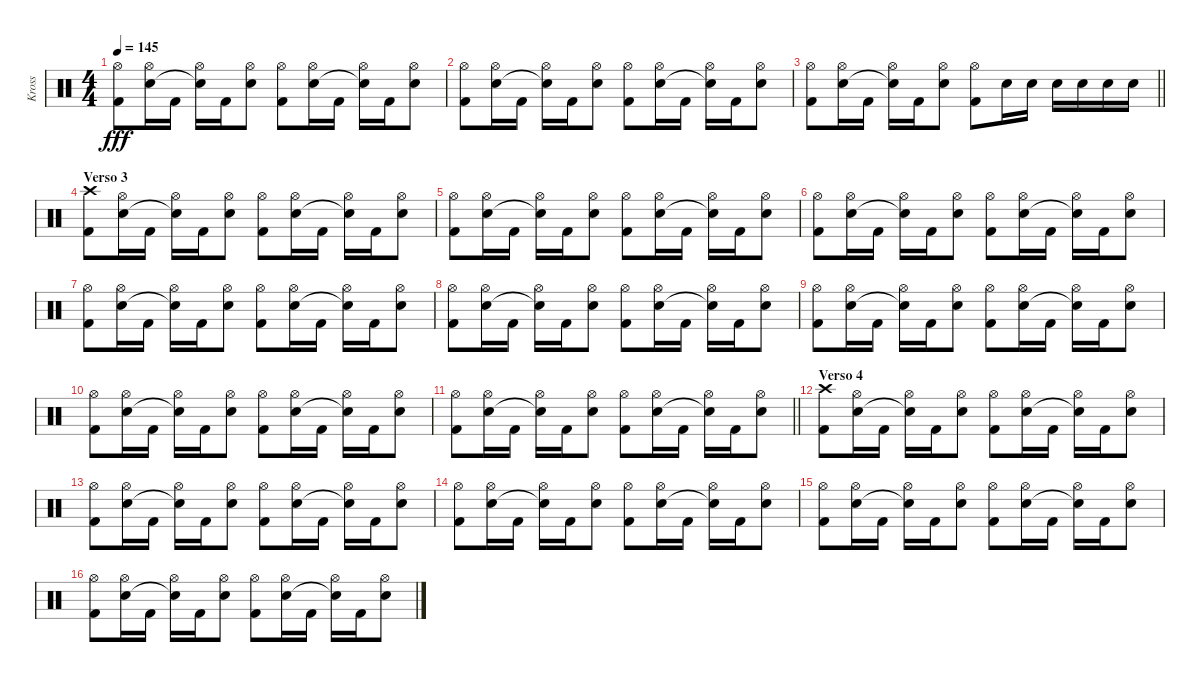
\track ("Kross" "Kross") {instrument percussion}
\staff {score}
\articulation defaults
\ts (4 4)
\tempo 145
\clef neutral
\ks c
("Hi-Hat (open)" "Kick (hit) 2").8{dy fff} ("Hi-Hat (open)" "Electric Snare (hit)").16 "Kick (hit) 2".16 ("Hi-Hat (open)" "Snare (hit)"{t}).16 "Kick (hit) 2".16 ("Hi-Hat (open)" "Electric Snare (hit)").8 ("Hi-Hat (open)" "Kick (hit) 2").8 ("Hi-Hat (open)" "Electric Snare (hit)").16 "Kick (hit) 2".16 ("Hi-Hat (open)" "Snare (hit)"{t}).16 "Kick (hit) 2".16 ("Hi-Hat (open)" "Electric Snare (hit)").8 |
("Hi-Hat (open)" "Kick (hit) 2").8 ("Hi-Hat (open)" "Electric Snare (hit)").16 "Kick (hit) 2".16 ("Hi-Hat (open)" "Snare (hit)"{t}).16 "Kick (hit) 2".16 ("Hi-Hat (open)" "Electric Snare (hit)").8 ("Hi-Hat (open)" "Kick (hit) 2").8 ("Hi-Hat (open)" "Electric Snare (hit)").16 "Kick (hit) 2".16 ("Hi-Hat (open)" "Snare (hit)"{t}).16 "Kick (hit) 2".16 ("Hi-Hat (open)" "Electric Snare (hit)").8 |
\barLineRight lightlight
("Hi-Hat (open)" "Kick (hit) 2").8 ("Hi-Hat (open)" "Electric Snare (hit)").16 "Kick (hit) 2".16 ("Hi-Hat (open)" "Snare (hit)"{t}).16 "Kick (hit) 2".16 ("Hi-Hat (open)" "Electric Snare (hit)").8 ("Hi-Hat (open)" "Kick (hit) 2").8 "Electric Snare (hit)".16 "Electric Snare (hit)".16 "Electric Snare (hit)".16 "Electric Snare (hit)".16 "Electric Snare (hit)".16 "Electric Snare (hit)".16 |
\section ("" "Verso 3")
("Crash high (hit)" "Kick (hit) 2").8 ("Hi-Hat (open)" "Electric Snare (hit)").16 "Kick (hit) 2".16 ("Hi-Hat (open)" "Snare (hit)"{t}).16 "Kick (hit) 2".16 ("Hi-Hat (open)" "Electric Snare (hit)").8 ("Hi-Hat (open)" "Kick (hit) 2").8 ("Hi-Hat (open)" "Electric Snare (hit)").16 "Kick (hit) 2".16 ("Hi-Hat (open)" "Snare (hit)"{t}).16 "Kick (hit) 2".16 ("Hi-Hat (open)" "Electric Snare (hit)").8 |
("Hi-Hat (open)" "Kick (hit) 2").8 ("Hi-Hat (open)" "Electric Snare (hit)").16 "Kick (hit) 2".16 ("Hi-Hat (open)" "Snare (hit)"{t}).16 "Kick (hit) 2".16 ("Hi-Hat (open)" "Electric Snare (hit)").8 ("Hi-Hat (open)" "Kick (hit) 2").8 ("Hi-Hat (open)" "Electric Snare (hit)").16 "Kick (hit) 2".16 ("Hi-Hat (open)" "Snare (hit)"{t}).16 "Kick (hit) 2".16 ("Hi-Hat (open)" "Electric Snare (hit)").8 |
("Hi-Hat (open)" "Kick (hit) 2").8 ("Hi-Hat (open)" "Electric Snare (hit)").16 "Kick (hit) 2".16 ("Hi-Hat (open)" "Snare (hit)"{t}).16 "Kick (hit) 2".16 ("Hi-Hat (open)" "Electric Snare (hit)").8 ("Hi-Hat (open)" "Kick (hit) 2").8 ("Hi-Hat (open)" "Electric Snare (hit)").16 "Kick (hit) 2".16 ("Hi-Hat (open)" "Snare (hit)"{t}).16 "Kick (hit) 2".16 ("Hi-Hat (open)" "Electric Snare (hit)").8 |
("Hi-Hat (open)" "Kick (hit) 2").8 ("Hi-Hat (open)" "Electric Snare (hit)").16 "Kick (hit) 2".16 ("Hi-Hat (open)" "Snare (hit)"{t}).16 "Kick (hit) 2".16 ("Hi-Hat (open)" "Electric Snare (hit)").8 ("Hi-Hat (open)" "Kick (hit) 2").8 ("Hi-Hat (open)" "Electric Snare (hit)").16 "Kick (hit) 2".16 ("Hi-Hat (open)" "Snare (hit)"{t}).16 "Kick (hit) 2".16 ("Hi-Hat (open)" "Electric Snare (hit)").8 |
("Hi-Hat (open)" "Kick (hit) 2").8 ("Hi-Hat (open)" "Electric Snare (hit)").16 "Kick (hit) 2".16 ("Hi-Hat (open)" "Snare (hit)"{t}).16 "Kick (hit) 2".16 ("Hi-Hat (open)" "Electric Snare (hit)").8 ("Hi-Hat (open)" "Kick (hit) 2").8 ("Hi-Hat (open)" "Electric Snare (hit)").16 "Kick (hit) 2".16 ("Hi-Hat (open)" "Snare (hit)"{t}).16 "Kick (hit) 2".16 ("Hi-Hat (open)" "Electric Snare (hit)").8 |
("Hi-Hat (open)" "Kick (hit) 2").8 ("Hi-Hat (open)" "Electric Snare (hit)").16 "Kick (hit) 2".16 ("Hi-Hat (open)" "Snare (hit)"{t}).16 "Kick (hit) 2".16 ("Hi-Hat (open)" "Electric Snare (hit)").8 ("Hi-Hat (open)" "Kick (hit) 2").8 ("Hi-Hat (open)" "Electric Snare (hit)").16 "Kick (hit) 2".16 ("Hi-Hat (open)" "Snare (hit)"{t}).16 "Kick (hit) 2".16 ("Hi-Hat (open)" "Electric Snare (hit)").8 |
("Hi-Hat (open)" "Kick (hit) 2").8 ("Hi-Hat (open)" "Electric Snare (hit)").16 "Kick (hit) 2".16 ("Hi-Hat (open)" "Snare (hit)"{t}).16 "Kick (hit) 2".16 ("Hi-Hat (open)" "Electric Snare (hit)").8 ("Hi-Hat (open)" "Kick (hit) 2").8 ("Hi-Hat (open)" "Electric Snare (hit)").16 "Kick (hit) 2".16 ("Hi-Hat (open)" "Snare (hit)"{t}).16 "Kick (hit) 2".16 ("Hi-Hat (open)" "Electric Snare (hit)").8 |
\barLineRight lightlight
("Hi-Hat (open)" "Kick (hit) 2").8 ("Hi-Hat (open)" "Electric Snare (hit)").16 "Kick (hit) 2".16 ("Hi-Hat (open)" "Snare (hit)"{t}).16 "Kick (hit) 2".16 ("Hi-Hat (open)" "Electric Snare (hit)").8 ("Hi-Hat (open)" "Kick (hit) 2").8 ("Hi-Hat (open)" "Electric Snare (hit)").16 "Kick (hit) 2".16 ("Hi-Hat (open)" "Snare (hit)"{t}).16 "Kick (hit) 2".16 ("Hi-Hat (open)" "Electric Snare (hit)").8 |
\section ("" "Verso 4")
("Crash high (hit)" "Kick (hit) 2").8 ("Hi-Hat (open)" "Electric Snare (hit)").16 "Kick (hit) 2".16 ("Hi-Hat (open)" "Snare (hit)"{t}).16 "Kick (hit) 2".16 ("Hi-Hat (open)" "Electric Snare (hit)").8 ("Hi-Hat (open)" "Kick (hit) 2").8 ("Hi-Hat (open)" "Electric Snare (hit)").16 "Kick (hit) 2".16 ("Hi-Hat (open)" "Snare (hit)"{t}).16 "Kick (hit) 2".16 ("Hi-Hat (open)" "Electric Snare (hit)").8 |
("Hi-Hat (open)" "Kick (hit) 2").8 ("Hi-Hat (open)" "Electric Snare (hit)").16 "Kick (hit) 2".16 ("Hi-Hat (open)" "Snare (hit)"{t}).16 "Kick (hit) 2".16 ("Hi-Hat (open)" "Electric Snare (hit)").8 ("Hi-Hat (open)" "Kick (hit) 2").8 ("Hi-Hat (open)" "Electric Snare (hit)").16 "Kick (hit) 2".16 ("Hi-Hat (open)" "Snare (hit)"{t}).16 "Kick (hit) 2".16 ("Hi-Hat (open)" "Electric Snare (hit)").8 |
("Hi-Hat (open)" "Kick (hit) 2").8 ("Hi-Hat (open)" "Electric Snare (hit)").16 "Kick (hit) 2".16 ("Hi-Hat (open)" "Snare (hit)"{t}).16 "Kick (hit) 2".16 ("Hi-Hat (open)" "Electric Snare (hit)").8 ("Hi-Hat (open)" "Kick (hit) 2").8 ("Hi-Hat (open)" "Electric Snare (hit)").16 "Kick (hit) 2".16 ("Hi-Hat (open)" "Snare (hit)"{t}).16 "Kick (hit) 2".16 ("Hi-Hat (open)" "Electric Snare (hit)").8 |
("Hi-Hat (open)" "Kick (hit) 2").8 ("Hi-Hat (open)" "Electric Snare (hit)").16 "Kick (hit) 2".16 ("Hi-Hat (open)" "Snare (hit)"{t}).16 "Kick (hit) 2".16 ("Hi-Hat (open)" "Electric Snare (hit)").8 ("Hi-Hat (open)" "Kick (hit) 2").8 ("Hi-Hat (open)" "Electric Snare (hit)").16 "Kick (hit) 2".16 ("Hi-Hat (open)" "Snare (hit)"{t}).16 "Kick (hit) 2".16 ("Hi-Hat (open)" "Electric Snare (hit)").8 |
("Hi-Hat (open)" "Kick (hit) 2").8 ("Hi-Hat (open)" "Electric Snare (hit)").16 "Kick (hit) 2".16 ("Hi-Hat (open)" "Snare (hit)"{t}).16 "Kick (hit) 2".16 ("Hi-Hat (open)" "Electric Snare (hit)").8 ("Hi-Hat (open)" "Kick (hit) 2").8 ("Hi-Hat (open)" "Electric Snare (hit)").16 "Kick (hit) 2".16 ("Hi-Hat (open)" "Snare (hit)"{t}).16 "Kick (hit) 2".16 ("Hi-Hat (open)" "Electric Snare (hit)").8
